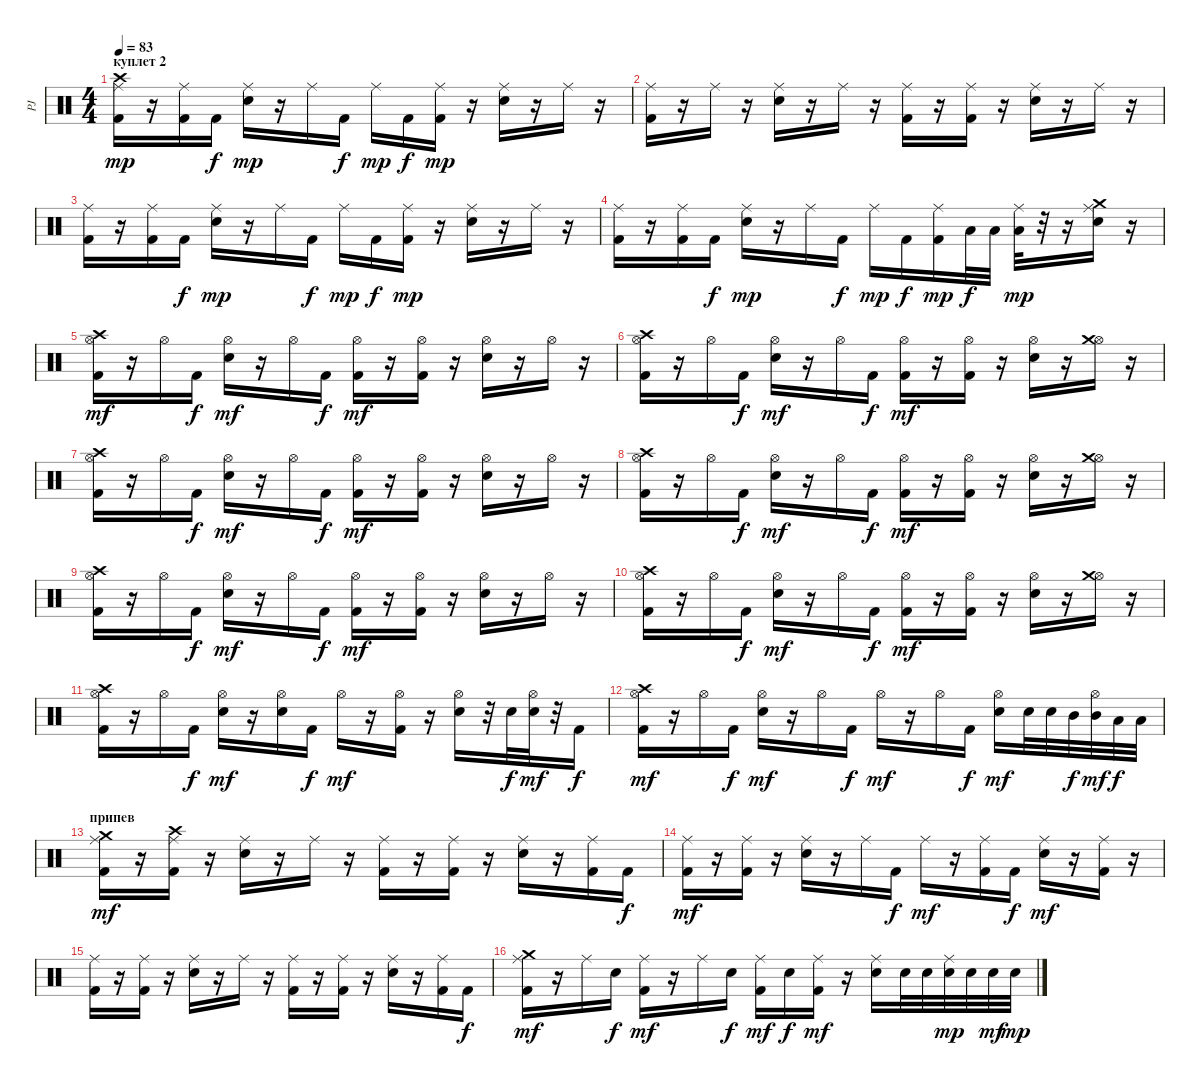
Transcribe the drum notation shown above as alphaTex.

\track ("PJ" "PJ") {instrument percussion}
\staff {score}
\articulation defaults
\ts (4 4)
\section ("" "куплет 2")
\tempo 83
\clef neutral
\ks c
("Ride (middle)" "Crash high (hit)" "Kick (hit) 2").16{dy mp} r.16 ("Ride (middle)" "Kick (hit) 2").16 "Kick (hit) 2".16{dy f} ("Ride (middle)" "Electric Snare (hit)").16{dy mp} r.16 "Ride (middle)".16 "Kick (hit) 2".16{dy f} "Ride (middle)".16{dy mp} "Kick (hit) 2".16{dy f} ("Ride (middle)" "Kick (hit) 2").16{dy mp} r.16 ("Ride (middle)" "Electric Snare (hit)").16 r.16 "Ride (middle)".16 r.16 |
("Ride (middle)" "Kick (hit) 2").16 r.16 "Ride (middle)".16 r.16 ("Ride (middle)" "Electric Snare (hit)").16 r.16 "Ride (middle)".16 r.16 ("Ride (middle)" "Kick (hit) 2").16 r.16 ("Ride (middle)" "Kick (hit) 2").16 r.16 ("Ride (middle)" "Electric Snare (hit)").16 r.16 "Ride (middle)".16 r.16 |
("Ride (middle)" "Kick (hit) 2").16 r.16 ("Ride (middle)" "Kick (hit) 2").16 "Kick (hit) 2".16{dy f} ("Ride (middle)" "Electric Snare (hit)").16{dy mp} r.16 "Ride (middle)".16 "Kick (hit) 2".16{dy f} "Ride (middle)".16{dy mp} "Kick (hit) 2".16{dy f} ("Ride (middle)" "Kick (hit) 2").16{dy mp} r.16 ("Ride (middle)" "Electric Snare (hit)").16 r.16 "Ride (middle)".16 r.16 |
("Ride (middle)" "Kick (hit) 2").16 r.16 ("Ride (middle)" "Kick (hit) 2").16 "Kick (hit) 2".16{dy f} ("Ride (middle)" "Electric Snare (hit)").16{dy mp} r.16 "Ride (middle)".16 "Kick (hit) 2".16{dy f} "Ride (middle)".16{dy mp} "Kick (hit) 2".16{dy f} ("Ride (middle)" "Kick (hit) 2").16{dy mp} "Low Tom (hit)".32{dy f} "Low Tom (hit)".32 ("Ride (middle)" "Low Tom (hit)").32{dy mp} r.32 r.16 ("Ride (middle)" "Crash medium (hit)" "Electric Snare (hit)").16 r.16 |
("Hi-Hat (open)" "Crash high (hit)" "Kick (hit) 2").16{dy mf} r.16 "Hi-Hat (open)".16 "Kick (hit) 2".16{dy f} ("Hi-Hat (open)" "Electric Snare (hit)").16{dy mf} r.16 "Hi-Hat (open)".16 "Kick (hit) 2".16{dy f} ("Hi-Hat (open)" "Kick (hit) 2").16{dy mf} r.16 ("Hi-Hat (open)" "Kick (hit) 2").16 r.16 ("Hi-Hat (open)" "Electric Snare (hit)").16 r.16 "Hi-Hat (open)".16 r.16 |
("Hi-Hat (open)" "Crash high (hit)" "Kick (hit) 2").16 r.16 "Hi-Hat (open)".16 "Kick (hit) 2".16{dy f} ("Hi-Hat (open)" "Electric Snare (hit)").16{dy mf} r.16 "Hi-Hat (open)".16 "Kick (hit) 2".16{dy f} ("Hi-Hat (open)" "Kick (hit) 2").16{dy mf} r.16 ("Hi-Hat (open)" "Kick (hit) 2").16 r.16 ("Hi-Hat (open)" "Electric Snare (hit)").16 r.16 ("Hi-Hat (open)" "Crash medium (hit)").16 r.16 |
("Hi-Hat (open)" "Crash high (hit)" "Kick (hit) 2").16 r.16 "Hi-Hat (open)".16 "Kick (hit) 2".16{dy f} ("Hi-Hat (open)" "Electric Snare (hit)").16{dy mf} r.16 "Hi-Hat (open)".16 "Kick (hit) 2".16{dy f} ("Hi-Hat (open)" "Kick (hit) 2").16{dy mf} r.16 ("Hi-Hat (open)" "Kick (hit) 2").16 r.16 ("Hi-Hat (open)" "Electric Snare (hit)").16 r.16 "Hi-Hat (open)".16 r.16 |
("Hi-Hat (open)" "Crash high (hit)" "Kick (hit) 2").16 r.16 "Hi-Hat (open)".16 "Kick (hit) 2".16{dy f} ("Hi-Hat (open)" "Electric Snare (hit)").16{dy mf} r.16 "Hi-Hat (open)".16 "Kick (hit) 2".16{dy f} ("Hi-Hat (open)" "Kick (hit) 2").16{dy mf} r.16 ("Hi-Hat (open)" "Kick (hit) 2").16 r.16 ("Hi-Hat (open)" "Electric Snare (hit)").16 r.16 ("Hi-Hat (open)" "Crash medium (hit)").16 r.16 |
("Hi-Hat (open)" "Crash high (hit)" "Kick (hit) 2").16 r.16 "Hi-Hat (open)".16 "Kick (hit) 2".16{dy f} ("Hi-Hat (open)" "Electric Snare (hit)").16{dy mf} r.16 "Hi-Hat (open)".16 "Kick (hit) 2".16{dy f} ("Hi-Hat (open)" "Kick (hit) 2").16{dy mf} r.16 ("Hi-Hat (open)" "Kick (hit) 2").16 r.16 ("Hi-Hat (open)" "Electric Snare (hit)").16 r.16 "Hi-Hat (open)".16 r.16 |
("Hi-Hat (open)" "Crash high (hit)" "Kick (hit) 2").16 r.16 "Hi-Hat (open)".16 "Kick (hit) 2".16{dy f} ("Hi-Hat (open)" "Electric Snare (hit)").16{dy mf} r.16 "Hi-Hat (open)".16 "Kick (hit) 2".16{dy f} ("Hi-Hat (open)" "Kick (hit) 2").16{dy mf} r.16 ("Hi-Hat (open)" "Kick (hit) 2").16 r.16 ("Hi-Hat (open)" "Electric Snare (hit)").16 r.16 ("Hi-Hat (open)" "Crash medium (hit)").16 r.16 |
("Hi-Hat (open)" "Crash high (hit)" "Kick (hit) 2").16 r.16 "Hi-Hat (open)".16 "Kick (hit) 2".16{dy f} ("Hi-Hat (open)" "Electric Snare (hit)").16{dy mf} r.16 ("Hi-Hat (open)" "Electric Snare (hit)").16 "Kick (hit) 2".16{dy f} "Hi-Hat (open)".16{dy mf} r.16 ("Hi-Hat (open)" "Kick (hit) 2").16 r.16 ("Hi-Hat (open)" "Electric Snare (hit)").16 r.32 "Electric Snare (hit)".32{dy f} ("Hi-Hat (open)" "Electric Snare (hit)").32{dy mf} r.32 "Kick (hit) 2".16{dy f} |
("Hi-Hat (open)" "Crash high (hit)" "Kick (hit) 2").16{dy mf} r.16 "Hi-Hat (open)".16 "Kick (hit) 2".16{dy f} ("Hi-Hat (open)" "Electric Snare (hit)").16{dy mf} r.16 "Hi-Hat (open)".16 "Kick (hit) 2".16{dy f} "Hi-Hat (open)".16{dy mf} r.16 "Hi-Hat (open)".16 "Kick (hit) 2".16{dy f} ("Hi-Hat (open)" "Electric Snare (hit)").16{dy mf} "Electric Snare (hit)".32 "Electric Snare (hit)".32 "Mid Tom (hit)".32{dy f} ("Hi-Hat (open)" "Mid Tom (hit)").32{dy mf} "Low Tom (hit)".32{dy f} "Low Tom (hit)".32 |
\section ("" "припев")
("Ride (middle)" "Crash medium (hit)" "Kick (hit) 2").16{dy mf} r.16 ("Ride (middle)" "Crash high (hit)" "Kick (hit) 2").16 r.16 ("Ride (middle)" "Electric Snare (hit)").16 r.16 "Ride (middle)".16 r.16 ("Ride (middle)" "Kick (hit) 2").16 r.16 ("Ride (middle)" "Kick (hit) 2").16 r.16 ("Ride (middle)" "Electric Snare (hit)").16 r.16 ("Ride (middle)" "Kick (hit) 2").16 "Kick (hit) 2".16{dy f} |
("Ride (middle)" "Kick (hit) 2").16{dy mf} r.16 ("Ride (middle)" "Kick (hit) 2").16 r.16 ("Ride (middle)" "Electric Snare (hit)").16 r.16 "Ride (middle)".16 "Kick (hit) 2".16{dy f} "Ride (middle)".16{dy mf} r.16 ("Ride (middle)" "Kick (hit) 2").16 "Kick (hit) 2".16{dy f} ("Ride (middle)" "Electric Snare (hit)").16{dy mf} r.16 ("Ride (middle)" "Kick (hit) 2").16 r.16 |
("Ride (middle)" "Kick (hit) 2").16 r.16 ("Ride (middle)" "Kick (hit) 2").16 r.16 ("Ride (middle)" "Electric Snare (hit)").16 r.16 "Ride (middle)".16 r.16 ("Ride (middle)" "Kick (hit) 2").16 r.16 ("Ride (middle)" "Kick (hit) 2").16 r.16 ("Ride (middle)" "Electric Snare (hit)").16 r.16 ("Ride (middle)" "Kick (hit) 2").16 "Kick (hit) 2".16{dy f} |
("Ride (middle)" "Crash medium (hit)" "Kick (hit) 2").16{dy mf} r.16 "Ride (middle)".16 "Electric Snare (hit)".16{dy f} ("Ride (middle)" "Kick (hit) 2").16{dy mf} r.16 "Ride (middle)".16 "Electric Snare (hit)".16{dy f} ("Ride (middle)" "Kick (hit) 2").16{dy mf} "Electric Snare (hit)".16{dy f} ("Ride (middle)" "Kick (hit) 2").16{dy mf} r.16 ("Ride (middle)" "Electric Snare (hit)").16 "Electric Snare (hit)".32 "Electric Snare (hit)".32 ("Ride (middle)" "Electric Snare (hit)").32{dy mp} "Electric Snare (hit)".32 "Electric Snare (hit)".32{dy mf} "Electric Snare (hit)".32{dy mp}
